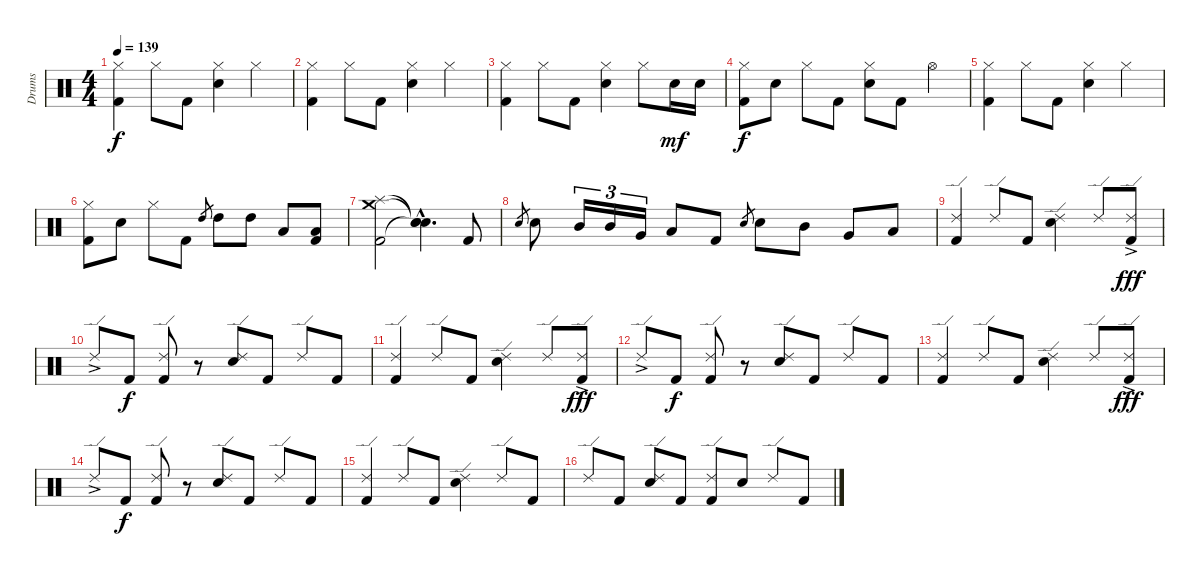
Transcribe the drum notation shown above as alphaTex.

\track ("Drums" "Drums") {instrument percussion}
\staff {score}
\articulation defaults
\ts (4 4)
\tempo 139
\clef neutral
\ks c
("Hi-Hat (closed)" "Kick (hit) 2").4{dy f} "Hi-Hat (closed)".8 "Kick (hit) 2".8 ("Hi-Hat (closed)" "Electric Snare (hit)").4 "Hi-Hat (closed)".4 |
("Hi-Hat (closed)" "Kick (hit) 2").4 "Hi-Hat (closed)".8 "Kick (hit) 2".8 ("Hi-Hat (closed)" "Electric Snare (hit)").4 "Hi-Hat (closed)".4 |
("Hi-Hat (closed)" "Kick (hit) 2").4 "Hi-Hat (closed)".8 "Kick (hit) 2".8 ("Hi-Hat (closed)" "Electric Snare (hit)").4 "Hi-Hat (closed)".8 "Electric Snare (hit)".16{dy mf} "Electric Snare (hit)".16 |
("Hi-Hat (closed)" "Kick (hit) 2").8{dy f} "Electric Snare (hit)".8 "Hi-Hat (closed)".8 "Kick (hit) 2".8 ("Hi-Hat (closed)" "Electric Snare (hit)").8 "Kick (hit) 2".8 "Hi-Hat (open)".4 |
("Hi-Hat (closed)" "Kick (hit) 2").4 "Hi-Hat (closed)".8 "Kick (hit) 2".8 ("Hi-Hat (closed)" "Electric Snare (hit)").4 "Hi-Hat (closed)".4 |
("Hi-Hat (closed)" "Kick (hit) 2").8 "Electric Snare (hit)".8 "Hi-Hat (closed)".8 "Kick (hit) 2".8 "High Tom (hit)".8{gr} "High Tom (hit)".8 "High Tom (hit)".8 "Low Tom (hit)".8 ("Low Floor Tom (hit)" "Kick (hit) 2").8 |
("Crash medium (hit)" "Splash (hit)" "Kick (hit) 2").2 ("Snare (hit)"{hac t} "Snare (hit)"{hac t} "Snare (hit)"{hac t}).4{d} "Kick (hit) 2".8 |
"Electric Snare (hit)".8{gr} "Electric Snare (hit)".8 "Mid Tom (hit)".16{tu (3 2)} "Mid Tom (hit)".16{tu (3 2)} "Very Low Tom (hit)".16{tu (3 2)} "Low Floor Tom (hit)".8 "Kick (hit) 2".8 "Electric Snare (hit)".8{gr} "Electric Snare (hit)".8 "Mid Tom (hit)".8 "Very Low Tom (hit)".8 "Low Floor Tom (hit)".8 |
("Ride (edge) 2" "Kick (hit) 2").4 "Ride (edge) 2".8 "Kick (hit) 2".8 ("Ride (edge) 2" "Electric Snare (hit)").4 "Ride (edge) 2".8 ("Ride (edge) 2"{ac} "Kick (hit) 2").8{dy fff} |
"Ride (edge) 2"{ac}.8 "Kick (hit) 2".8{dy f} ("Ride (edge) 2" "Kick (hit) 2").8 r.8 ("Ride (edge) 2" "Electric Snare (hit)").8 "Kick (hit) 2".8 "Ride (edge) 2".8 "Kick (hit) 2".8 |
("Ride (edge) 2" "Kick (hit) 2").4 "Ride (edge) 2".8 "Kick (hit) 2".8 ("Ride (edge) 2" "Electric Snare (hit)").4 "Ride (edge) 2".8 ("Ride (edge) 2"{ac} "Kick (hit) 2").8{dy fff} |
"Ride (edge) 2"{ac}.8 "Kick (hit) 2".8{dy f} ("Ride (edge) 2" "Kick (hit) 2").8 r.8 ("Ride (edge) 2" "Electric Snare (hit)").8 "Kick (hit) 2".8 "Ride (edge) 2".8 "Kick (hit) 2".8 |
("Ride (edge) 2" "Kick (hit) 2").4 "Ride (edge) 2".8 "Kick (hit) 2".8 ("Ride (edge) 2" "Electric Snare (hit)").4 "Ride (edge) 2".8 ("Ride (edge) 2"{ac} "Kick (hit) 2").8{dy fff} |
"Ride (edge) 2"{ac}.8 "Kick (hit) 2".8{dy f} ("Ride (edge) 2" "Kick (hit) 2").8 r.8 ("Ride (edge) 2" "Electric Snare (hit)").8 "Kick (hit) 2".8 "Ride (edge) 2".8 "Kick (hit) 2".8 |
("Ride (edge) 2" "Kick (hit) 2").4 "Ride (edge) 2".8 "Kick (hit) 2".8 ("Ride (edge) 2" "Electric Snare (hit)").4 "Ride (edge) 2".8 "Kick (hit) 2".8 |
"Ride (edge) 2".8 "Kick (hit) 2".8 ("Ride (edge) 2" "Electric Snare (hit)").8 "Kick (hit) 2".8 ("Ride (edge) 2" "Kick (hit) 2").8 "Electric Snare (hit)".8 "Ride (edge) 2".8 "Kick (hit) 2".8
